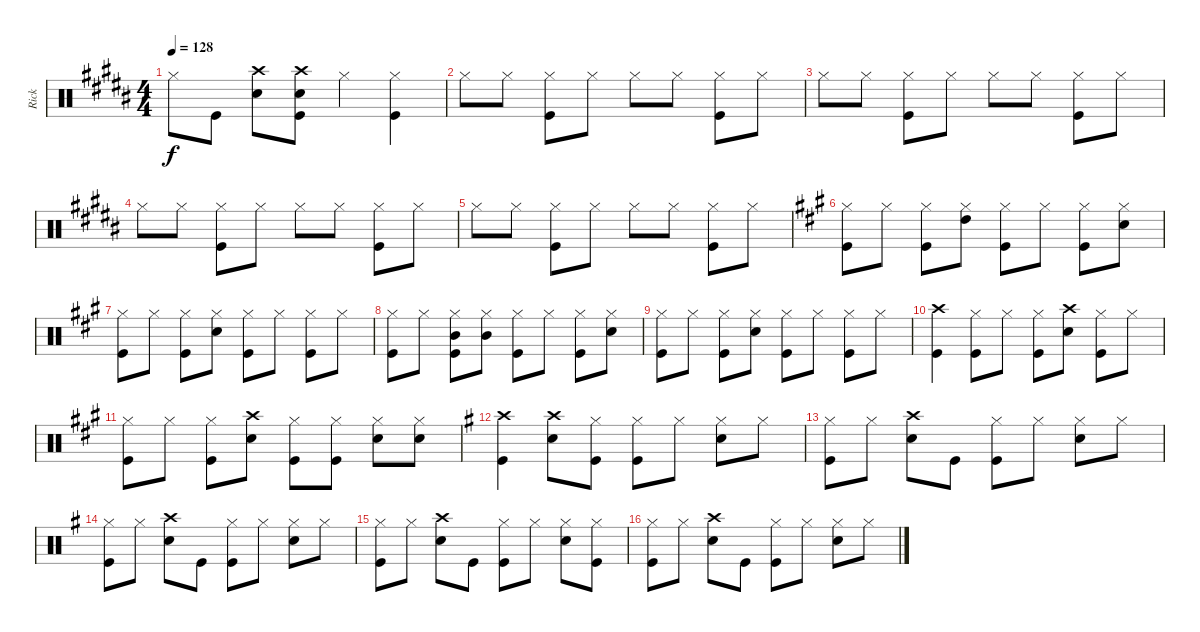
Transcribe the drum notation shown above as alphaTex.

\track ("Rick" "Rick") {instrument percussion}
\staff {score}
\articulation defaults
\ts (4 4)
\tempo 128
\clef neutral
\ks b "Hi-Hat (closed)".8{dy f} "Kick (hit)".8
("Crash high (hit)" "Snare (hit) 2").8 ("Crash high (hit)" "Snare (hit) 2" "Kick (hit)").8 "Hi-Hat (closed)".4 ("Hi-Hat (closed)" "Kick (hit)").4 |
"Hi-Hat (closed)".8 "Hi-Hat (closed)".8 ("Hi-Hat (closed)" "Kick (hit)").8 "Hi-Hat (closed)".8 "Hi-Hat (closed)".8 "Hi-Hat (closed)".8 ("Hi-Hat (closed)" "Kick (hit)").8 "Hi-Hat (closed)".8 |
"Hi-Hat (closed)".8 "Hi-Hat (closed)".8 ("Hi-Hat (closed)" "Kick (hit)").8 "Hi-Hat (closed)".8 "Hi-Hat (closed)".8 "Hi-Hat (closed)".8 ("Hi-Hat (closed)" "Kick (hit)").8 "Hi-Hat (closed)".8 |
"Hi-Hat (closed)".8 "Hi-Hat (closed)".8 ("Hi-Hat (closed)" "Kick (hit)").8 "Hi-Hat (closed)".8 "Hi-Hat (closed)".8 "Hi-Hat (closed)".8 ("Hi-Hat (closed)" "Kick (hit)").8 "Hi-Hat (closed)".8 |
"Hi-Hat (closed)".8 "Hi-Hat (closed)".8 ("Hi-Hat (closed)" "Kick (hit)").8 "Hi-Hat (closed)".8 "Hi-Hat (closed)".8 "Hi-Hat (closed)".8 ("Hi-Hat (closed)" "Kick (hit)").8 "Hi-Hat (closed)".8 |
\ks a
("Hi-Hat (closed)" "Kick (hit)").8 "Hi-Hat (closed)".8 ("Hi-Hat (closed)" "Kick (hit)").8 ("Hi-Hat (closed)" "High Tom (hit)").8 ("Hi-Hat (closed)" "Kick (hit)").8 "Hi-Hat (closed)".8 ("Hi-Hat (closed)" "Kick (hit)").8 ("Hi-Hat (closed)" "Snare (hit) 2").8 |
("Hi-Hat (closed)" "Kick (hit)").8 "Hi-Hat (closed)".8 ("Hi-Hat (closed)" "Kick (hit)").8 ("Hi-Hat (closed)" "Snare (hit) 2").8 ("Hi-Hat (closed)" "Kick (hit)").8 "Hi-Hat (closed)".8 ("Hi-Hat (closed)" "Kick (hit)").8 "Hi-Hat (closed)".8 |
("Hi-Hat (closed)" "Kick (hit)").8 "Hi-Hat (closed)".8 ("Hi-Hat (closed)" "Mid Tom (hit)" "Kick (hit)").8 ("Hi-Hat (closed)" "Mid Tom (hit)").8 ("Hi-Hat (closed)" "Kick (hit)").8 "Hi-Hat (closed)".8 ("Hi-Hat (closed)" "Kick (hit)").8 ("Hi-Hat (closed)" "Snare (hit) 2").8 |
("Hi-Hat (closed)" "Kick (hit)").8 "Hi-Hat (closed)".8 ("Hi-Hat (closed)" "Kick (hit)").8 ("Hi-Hat (closed)" "Snare (hit) 2").8 ("Hi-Hat (closed)" "Kick (hit)").8 "Hi-Hat (closed)".8 ("Hi-Hat (closed)" "Kick (hit)").8 "Hi-Hat (closed)".8 |
("Crash high (hit)" "Kick (hit)").4 ("Hi-Hat (closed)" "Kick (hit)").8 "Hi-Hat (closed)".8 ("Hi-Hat (closed)" "Kick (hit)").8 ("Crash high (hit)" "Snare (hit) 2").8 ("Hi-Hat (closed)" "Kick (hit)").8 "Hi-Hat (closed)".8 |
("Hi-Hat (closed)" "Kick (hit)").8 "Hi-Hat (closed)".8 ("Hi-Hat (closed)" "Kick (hit)").8 ("Crash high (hit)" "Snare (hit) 2").8 ("Hi-Hat (closed)" "Kick (hit)").8 ("Hi-Hat (closed)" "Kick (hit)").8 ("Hi-Hat (closed)" "Snare (hit) 2").8 ("Hi-Hat (closed)" "Snare (hit) 2").8 |
\ks g
("Crash high (hit)" "Kick (hit)").4 ("Crash high (hit)" "Snare (hit) 2").8 ("Hi-Hat (closed)" "Kick (hit)").8 ("Hi-Hat (closed)" "Kick (hit)").8 "Hi-Hat (closed)".8 ("Hi-Hat (closed)" "Snare (hit) 2").8 "Hi-Hat (closed)".8 |
("Hi-Hat (closed)" "Kick (hit)").8 "Hi-Hat (closed)".8 ("Crash high (hit)" "Snare (hit) 2").8 "Kick (hit)".8 ("Hi-Hat (closed)" "Kick (hit)").8 "Hi-Hat (closed)".8 ("Hi-Hat (closed)" "Snare (hit) 2").8 "Hi-Hat (closed)".8 |
("Hi-Hat (closed)" "Kick (hit)").8 "Hi-Hat (closed)".8 ("Crash high (hit)" "Snare (hit) 2").8 "Kick (hit)".8 ("Hi-Hat (closed)" "Kick (hit)").8 "Hi-Hat (closed)".8 ("Hi-Hat (closed)" "Snare (hit) 2").8 "Hi-Hat (closed)".8 |
("Hi-Hat (closed)" "Kick (hit)").8 "Hi-Hat (closed)".8 ("Crash high (hit)" "Snare (hit) 2").8 "Kick (hit)".8 ("Hi-Hat (closed)" "Kick (hit)").8 "Hi-Hat (closed)".8 ("Hi-Hat (closed)" "Snare (hit) 2").8 ("Hi-Hat (closed)" "Kick (hit)").8 |
("Hi-Hat (closed)" "Kick (hit)").8 "Hi-Hat (closed)".8 ("Crash high (hit)" "Snare (hit) 2").8 "Kick (hit)".8 ("Hi-Hat (closed)" "Kick (hit)").8 "Hi-Hat (closed)".8 ("Hi-Hat (closed)" "Snare (hit) 2").8 "Hi-Hat (closed)".8
